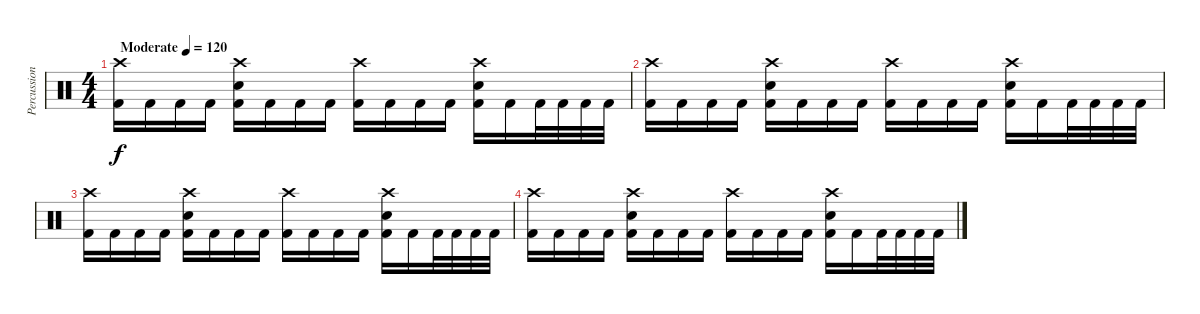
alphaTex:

\track ("Percussion" "Percussion") {instrument percussion}
\staff {score}
\articulation defaults
\ts (4 4)
\tempo (120 "Moderate")
\clef neutral
\ks c
("Crash high (hit)" "Kick (hit) 2").16{dy f} "Kick (hit) 2".16 "Kick (hit) 2".16 "Kick (hit) 2".16 ("Crash high (hit)" "Snare (hit) 2" "Kick (hit) 2").16 "Kick (hit) 2".16 "Kick (hit) 2".16 "Kick (hit) 2".16 ("Crash high (hit)" "Kick (hit) 2").16 "Kick (hit) 2".16 "Kick (hit) 2".16 "Kick (hit) 2".16 ("Crash high (hit)" "Snare (hit) 2" "Kick (hit) 2").16 "Kick (hit) 2".16 "Kick (hit) 2".32 "Kick (hit) 2".32 "Kick (hit) 2".32 "Kick (hit) 2".32 |
("Crash high (hit)" "Kick (hit) 2").16 "Kick (hit) 2".16 "Kick (hit) 2".16 "Kick (hit) 2".16 ("Crash high (hit)" "Snare (hit) 2" "Kick (hit) 2").16 "Kick (hit) 2".16 "Kick (hit) 2".16 "Kick (hit) 2".16 ("Crash high (hit)" "Kick (hit) 2").16 "Kick (hit) 2".16 "Kick (hit) 2".16 "Kick (hit) 2".16 ("Crash high (hit)" "Snare (hit) 2" "Kick (hit) 2").16 "Kick (hit) 2".16 "Kick (hit) 2".32 "Kick (hit) 2".32 "Kick (hit) 2".32 "Kick (hit) 2".32 |
("Crash high (hit)" "Kick (hit) 2").16 "Kick (hit) 2".16 "Kick (hit) 2".16 "Kick (hit) 2".16 ("Crash high (hit)" "Snare (hit) 2" "Kick (hit) 2").16 "Kick (hit) 2".16 "Kick (hit) 2".16 "Kick (hit) 2".16 ("Crash high (hit)" "Kick (hit) 2").16 "Kick (hit) 2".16 "Kick (hit) 2".16 "Kick (hit) 2".16 ("Crash high (hit)" "Snare (hit) 2" "Kick (hit) 2").16 "Kick (hit) 2".16 "Kick (hit) 2".32 "Kick (hit) 2".32 "Kick (hit) 2".32 "Kick (hit) 2".32 |
("Crash high (hit)" "Kick (hit) 2").16 "Kick (hit) 2".16 "Kick (hit) 2".16 "Kick (hit) 2".16 ("Crash high (hit)" "Snare (hit) 2" "Kick (hit) 2").16 "Kick (hit) 2".16 "Kick (hit) 2".16 "Kick (hit) 2".16 ("Crash high (hit)" "Kick (hit) 2").16 "Kick (hit) 2".16 "Kick (hit) 2".16 "Kick (hit) 2".16 ("Crash high (hit)" "Snare (hit) 2" "Kick (hit) 2").16 "Kick (hit) 2".16 "Kick (hit) 2".32 "Kick (hit) 2".32 "Kick (hit) 2".32 "Kick (hit) 2".32
